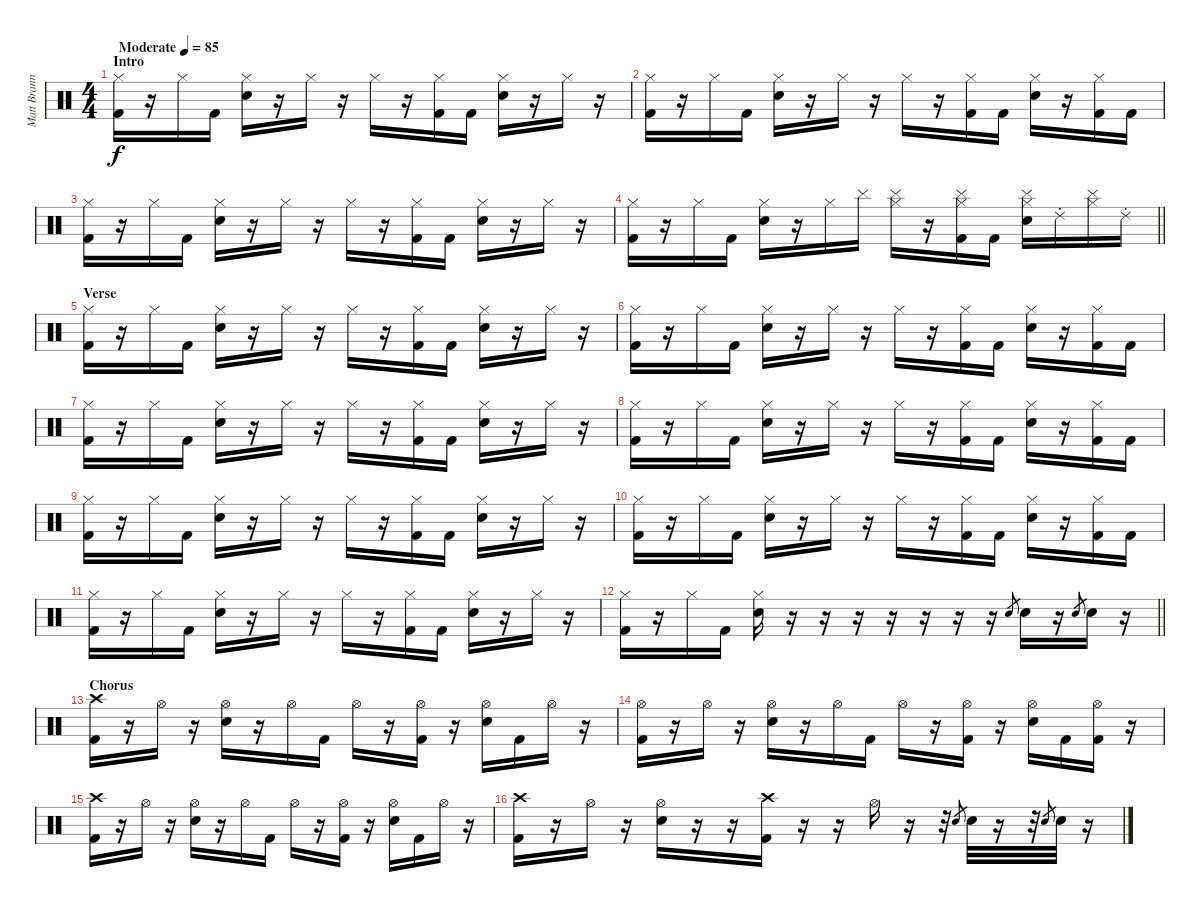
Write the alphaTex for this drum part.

\track ("Matt Brann" "Matt Brann") {instrument percussion}
\staff {score}
\articulation defaults
\ts (4 4)
\section ("" "Intro")
\tempo (85 "Moderate")
\clef neutral
\ks c
("Hi-Hat (closed)" "Kick (hit) 2").16{dy f} r.16 "Hi-Hat (closed)".16 "Kick (hit) 2".16 ("Hi-Hat (closed)" "Snare (hit) 2").16 r.16 "Hi-Hat (closed)".16 r.16 "Hi-Hat (closed)".16 r.16 ("Hi-Hat (closed)" "Kick (hit) 2").16 "Kick (hit) 2".16 ("Hi-Hat (closed)" "Snare (hit) 2").16 r.16 "Hi-Hat (closed)".16 r.16 |
("Hi-Hat (closed)" "Kick (hit) 2").16 r.16 "Hi-Hat (closed)".16 "Kick (hit) 2".16 ("Hi-Hat (closed)" "Snare (hit) 2").16 r.16 "Hi-Hat (closed)".16 r.16 "Hi-Hat (closed)".16 r.16 ("Hi-Hat (closed)" "Kick (hit) 2").16 "Kick (hit) 2".16 ("Hi-Hat (closed)" "Snare (hit) 2").16 r.16 ("Hi-Hat (closed)" "Kick (hit) 2").16 "Kick (hit) 2".16 |
("Hi-Hat (closed)" "Kick (hit) 2").16 r.16 "Hi-Hat (closed)".16 "Kick (hit) 2".16 ("Hi-Hat (closed)" "Snare (hit) 2").16 r.16 "Hi-Hat (closed)".16 r.16 "Hi-Hat (closed)".16 r.16 ("Hi-Hat (closed)" "Kick (hit) 2").16 "Kick (hit) 2".16 ("Hi-Hat (closed)" "Snare (hit) 2").16 r.16 "Hi-Hat (closed)".16 r.16 |
\barLineRight lightlight
("Hi-Hat (closed)" "Kick (hit) 2").16 r.16 "Hi-Hat (closed)".16 "Kick (hit) 2".16 ("Hi-Hat (closed)" "Snare (hit) 2").16 r.16 "Hi-Hat (closed)".16 "Cymbal (hit)".16 ("Hi-Hat (closed)" "Cymbal (hit)").16 r.16 ("Hi-Hat (closed)" "Cymbal (hit)" "Kick (hit) 2").16 "Kick (hit) 2".16 ("Hi-Hat (closed)" "Cymbal (hit)" "Snare (hit) 2").16 "Ride (choke) 2".16 ("Hi-Hat (closed)" "Cymbal (hit)").16 "Ride (choke) 2".16 |
\section ("" "Verse")
("Hi-Hat (closed)" "Kick (hit) 2").16 r.16 "Hi-Hat (closed)".16 "Kick (hit) 2".16 ("Hi-Hat (closed)" "Snare (hit) 2").16 r.16 "Hi-Hat (closed)".16 r.16 "Hi-Hat (closed)".16 r.16 ("Hi-Hat (closed)" "Kick (hit) 2").16 "Kick (hit) 2".16 ("Hi-Hat (closed)" "Snare (hit) 2").16 r.16 "Hi-Hat (closed)".16 r.16 |
("Hi-Hat (closed)" "Kick (hit) 2").16 r.16 "Hi-Hat (closed)".16 "Kick (hit) 2".16 ("Hi-Hat (closed)" "Snare (hit) 2").16 r.16 "Hi-Hat (closed)".16 r.16 "Hi-Hat (closed)".16 r.16 ("Hi-Hat (closed)" "Kick (hit) 2").16 "Kick (hit) 2".16 ("Hi-Hat (closed)" "Snare (hit) 2").16 r.16 ("Hi-Hat (closed)" "Kick (hit) 2").16 "Kick (hit) 2".16 |
("Hi-Hat (closed)" "Kick (hit) 2").16 r.16 "Hi-Hat (closed)".16 "Kick (hit) 2".16 ("Hi-Hat (closed)" "Snare (hit) 2").16 r.16 "Hi-Hat (closed)".16 r.16 "Hi-Hat (closed)".16 r.16 ("Hi-Hat (closed)" "Kick (hit) 2").16 "Kick (hit) 2".16 ("Hi-Hat (closed)" "Snare (hit) 2").16 r.16 "Hi-Hat (closed)".16 r.16 |
("Hi-Hat (closed)" "Kick (hit) 2").16 r.16 "Hi-Hat (closed)".16 "Kick (hit) 2".16 ("Hi-Hat (closed)" "Snare (hit) 2").16 r.16 "Hi-Hat (closed)".16 r.16 "Hi-Hat (closed)".16 r.16 ("Hi-Hat (closed)" "Kick (hit) 2").16 "Kick (hit) 2".16 ("Hi-Hat (closed)" "Snare (hit) 2").16 r.16 ("Hi-Hat (closed)" "Kick (hit) 2").16 "Kick (hit) 2".16 |
("Hi-Hat (closed)" "Kick (hit) 2").16 r.16 "Hi-Hat (closed)".16 "Kick (hit) 2".16 ("Hi-Hat (closed)" "Snare (hit) 2").16 r.16 "Hi-Hat (closed)".16 r.16 "Hi-Hat (closed)".16 r.16 ("Hi-Hat (closed)" "Kick (hit) 2").16 "Kick (hit) 2".16 ("Hi-Hat (closed)" "Snare (hit) 2").16 r.16 "Hi-Hat (closed)".16 r.16 |
("Hi-Hat (closed)" "Kick (hit) 2").16 r.16 "Hi-Hat (closed)".16 "Kick (hit) 2".16 ("Hi-Hat (closed)" "Snare (hit) 2").16 r.16 "Hi-Hat (closed)".16 r.16 "Hi-Hat (closed)".16 r.16 ("Hi-Hat (closed)" "Kick (hit) 2").16 "Kick (hit) 2".16 ("Hi-Hat (closed)" "Snare (hit) 2").16 r.16 ("Hi-Hat (closed)" "Kick (hit) 2").16 "Kick (hit) 2".16 |
("Hi-Hat (closed)" "Kick (hit) 2").16 r.16 "Hi-Hat (closed)".16 "Kick (hit) 2".16 ("Hi-Hat (closed)" "Snare (hit) 2").16 r.16 "Hi-Hat (closed)".16 r.16 "Hi-Hat (closed)".16 r.16 ("Hi-Hat (closed)" "Kick (hit) 2").16 "Kick (hit) 2".16 ("Hi-Hat (closed)" "Snare (hit) 2").16 r.16 "Hi-Hat (closed)".16 r.16 |
\barLineRight lightlight
("Hi-Hat (closed)" "Kick (hit) 2").16 r.16 "Hi-Hat (closed)".16 "Kick (hit) 2".16 ("Hi-Hat (closed)" "Snare (hit) 2").16 r.16 r.16 r.16 r.16 r.16 r.16 r.16 "Electric Snare (hit)".8{gr} "Electric Snare (hit)".16 r.16 "Electric Snare (hit)".8{gr} "Electric Snare (hit)".16 r.16 |
\section ("" "Chorus")
("Crash high (hit)" "Kick (hit) 2").16 r.16 "Hi-Hat (open)".16 r.16 ("Hi-Hat (open)" "Electric Snare (hit)").16 r.16 "Hi-Hat (open)".16 "Kick (hit) 2".16 "Hi-Hat (open)".16 r.16 ("Hi-Hat (open)" "Kick (hit) 2").16 r.16 ("Hi-Hat (open)" "Electric Snare (hit)").16 "Kick (hit) 2".16 "Hi-Hat (open)".16 r.16 |
("Hi-Hat (open)" "Kick (hit) 2").16 r.16 "Hi-Hat (open)".16 r.16 ("Hi-Hat (open)" "Electric Snare (hit)").16 r.16 "Hi-Hat (open)".16 "Kick (hit) 2".16 "Hi-Hat (open)".16 r.16 ("Hi-Hat (open)" "Kick (hit) 2").16 r.16 ("Hi-Hat (open)" "Electric Snare (hit)").16 "Kick (hit) 2".16 ("Hi-Hat (open)" "Kick (hit) 2").16 r.16 |
("Crash high (hit)" "Kick (hit) 2").16 r.16 "Hi-Hat (open)".16 r.16 ("Hi-Hat (open)" "Electric Snare (hit)").16 r.16 "Hi-Hat (open)".16 "Kick (hit) 2".16 "Hi-Hat (open)".16 r.16 ("Hi-Hat (open)" "Kick (hit) 2").16 r.16 ("Hi-Hat (open)" "Electric Snare (hit)").16 "Kick (hit) 2".16 "Hi-Hat (open)".16 r.16 |
("Crash high (hit)" "Kick (hit) 2").16 r.16 "Hi-Hat (open)".16 r.16 ("Hi-Hat (open)" "Electric Snare (hit)").16 r.16 r.16 ("Crash high (hit)" "Kick (hit) 2").16 r.16 r.16 "Hi-Hat (open)".16 r.16 r.32 "Electric Snare (hit)".8{gr} "Electric Snare (hit)".32 r.16 r.32 "Electric Snare (hit)".8{gr} "Electric Snare (hit)".32 r.16
